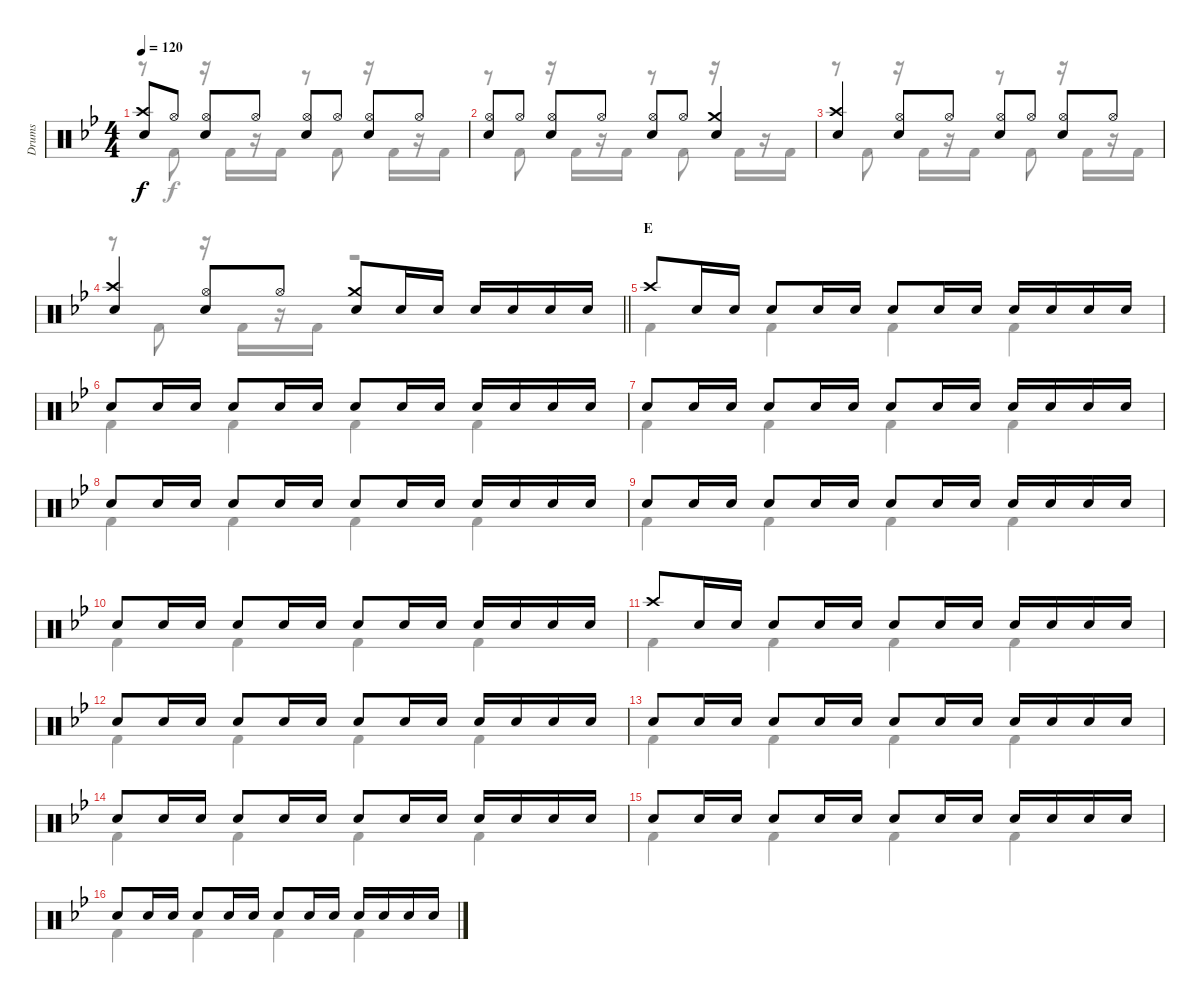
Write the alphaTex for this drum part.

\track ("Drums" "Drums") {instrument percussion}
\staff {score}
\articulation defaults
\voice
\ts (4 4)
\tempo 120
\clef neutral
\ks bb
("Crash high (hit)" "Snare (hit) 2").8{dy f} "Hi-Hat (open)".8 ("Hi-Hat (open)" "Snare (hit) 2").8 "Hi-Hat (open)".8 ("Hi-Hat (open)" "Snare (hit) 2").8 "Hi-Hat (open)".8 ("Hi-Hat (open)" "Snare (hit) 2").8 "Hi-Hat (open)".8 |
("Hi-Hat (open)" "Snare (hit) 2").8 "Hi-Hat (open)".8 ("Hi-Hat (open)" "Snare (hit) 2").8 "Hi-Hat (open)".8 ("Hi-Hat (open)" "Snare (hit) 2").8 "Hi-Hat (open)".8 ("Crash medium (hit)" "Snare (hit) 2").4 |
("Crash high (hit)" "Snare (hit) 2").4 ("Hi-Hat (open)" "Snare (hit) 2").8 "Hi-Hat (open)".8 ("Hi-Hat (open)" "Snare (hit) 2").8 "Hi-Hat (open)".8 ("Hi-Hat (open)" "Snare (hit) 2").8 "Hi-Hat (open)".8 |
\barLineRight lightlight
("Crash high (hit)" "Snare (hit) 2").4 ("Hi-Hat (open)" "Snare (hit) 2").8 "Hi-Hat (open)".8 ("Crash medium (hit)" "Snare (hit) 2").8 "Snare (hit) 2".16 "Snare (hit) 2".16 "Snare (hit) 2".16 "Snare (hit) 2".16 "Snare (hit) 2".16 "Snare (hit) 2".16 |
\section ("" "E")
"Crash high (hit)".8 "Snare (hit) 2".16 "Snare (hit) 2".16 "Snare (hit) 2".8 "Snare (hit) 2".16 "Snare (hit) 2".16 "Snare (hit) 2".8 "Snare (hit) 2".16 "Snare (hit) 2".16 "Snare (hit) 2".16 "Snare (hit) 2".16 "Snare (hit) 2".16 "Snare (hit) 2".16 |
"Snare (hit) 2".8 "Snare (hit) 2".16 "Snare (hit) 2".16 "Snare (hit) 2".8 "Snare (hit) 2".16 "Snare (hit) 2".16 "Snare (hit) 2".8 "Snare (hit) 2".16 "Snare (hit) 2".16 "Snare (hit) 2".16 "Snare (hit) 2".16 "Snare (hit) 2".16 "Snare (hit) 2".16 |
"Snare (hit) 2".8 "Snare (hit) 2".16 "Snare (hit) 2".16 "Snare (hit) 2".8 "Snare (hit) 2".16 "Snare (hit) 2".16 "Snare (hit) 2".8 "Snare (hit) 2".16 "Snare (hit) 2".16 "Snare (hit) 2".16 "Snare (hit) 2".16 "Snare (hit) 2".16 "Snare (hit) 2".16 |
"Snare (hit) 2".8 "Snare (hit) 2".16 "Snare (hit) 2".16 "Snare (hit) 2".8 "Snare (hit) 2".16 "Snare (hit) 2".16 "Snare (hit) 2".8 "Snare (hit) 2".16 "Snare (hit) 2".16 "Snare (hit) 2".16 "Snare (hit) 2".16 "Snare (hit) 2".16 "Snare (hit) 2".16 |
"Snare (hit) 2".8 "Snare (hit) 2".16 "Snare (hit) 2".16 "Snare (hit) 2".8 "Snare (hit) 2".16 "Snare (hit) 2".16 "Snare (hit) 2".8 "Snare (hit) 2".16 "Snare (hit) 2".16 "Snare (hit) 2".16 "Snare (hit) 2".16 "Snare (hit) 2".16 "Snare (hit) 2".16 |
"Snare (hit) 2".8 "Snare (hit) 2".16 "Snare (hit) 2".16 "Snare (hit) 2".8 "Snare (hit) 2".16 "Snare (hit) 2".16 "Snare (hit) 2".8 "Snare (hit) 2".16 "Snare (hit) 2".16 "Snare (hit) 2".16 "Snare (hit) 2".16 "Snare (hit) 2".16 "Snare (hit) 2".16 |
"Crash high (hit)".8 "Snare (hit) 2".16 "Snare (hit) 2".16 "Snare (hit) 2".8 "Snare (hit) 2".16 "Snare (hit) 2".16 "Snare (hit) 2".8 "Snare (hit) 2".16 "Snare (hit) 2".16 "Snare (hit) 2".16 "Snare (hit) 2".16 "Snare (hit) 2".16 "Snare (hit) 2".16 |
"Snare (hit) 2".8 "Snare (hit) 2".16 "Snare (hit) 2".16 "Snare (hit) 2".8 "Snare (hit) 2".16 "Snare (hit) 2".16 "Snare (hit) 2".8 "Snare (hit) 2".16 "Snare (hit) 2".16 "Snare (hit) 2".16 "Snare (hit) 2".16 "Snare (hit) 2".16 "Snare (hit) 2".16 |
"Snare (hit) 2".8 "Snare (hit) 2".16 "Snare (hit) 2".16 "Snare (hit) 2".8 "Snare (hit) 2".16 "Snare (hit) 2".16 "Snare (hit) 2".8 "Snare (hit) 2".16 "Snare (hit) 2".16 "Snare (hit) 2".16 "Snare (hit) 2".16 "Snare (hit) 2".16 "Snare (hit) 2".16 |
"Snare (hit) 2".8 "Snare (hit) 2".16 "Snare (hit) 2".16 "Snare (hit) 2".8 "Snare (hit) 2".16 "Snare (hit) 2".16 "Snare (hit) 2".8 "Snare (hit) 2".16 "Snare (hit) 2".16 "Snare (hit) 2".16 "Snare (hit) 2".16 "Snare (hit) 2".16 "Snare (hit) 2".16 |
"Snare (hit) 2".8 "Snare (hit) 2".16 "Snare (hit) 2".16 "Snare (hit) 2".8 "Snare (hit) 2".16 "Snare (hit) 2".16 "Snare (hit) 2".8 "Snare (hit) 2".16 "Snare (hit) 2".16 "Snare (hit) 2".16 "Snare (hit) 2".16 "Snare (hit) 2".16 "Snare (hit) 2".16 |
"Snare (hit) 2".8 "Snare (hit) 2".16 "Snare (hit) 2".16 "Snare (hit) 2".8 "Snare (hit) 2".16 "Snare (hit) 2".16 "Snare (hit) 2".8 "Snare (hit) 2".16 "Snare (hit) 2".16 "Snare (hit) 2".16 "Snare (hit) 2".16 "Snare (hit) 2".16 "Snare (hit) 2".16
\voice
\clef neutral
\ottava regular
\simile none
\ks bb
r.8{dy f} "Kick (hit) 2".8 r.16 "Kick (hit) 2".16 r.16 "Kick (hit) 2".16 r.8 "Kick (hit) 2".8 r.16 "Kick (hit) 2".16 r.16 "Kick (hit) 2".16 |
r.8 "Kick (hit) 2".8 r.16 "Kick (hit) 2".16 r.16 "Kick (hit) 2".16 r.8 "Kick (hit) 2".8 r.16 "Kick (hit) 2".16 r.16 "Kick (hit) 2".16 |
r.8 "Kick (hit) 2".8 r.16 "Kick (hit) 2".16 r.16 "Kick (hit) 2".16 r.8 "Kick (hit) 2".8 r.16 "Kick (hit) 2".16 r.16 "Kick (hit) 2".16 |
\barLineRight lightlight
r.8 "Kick (hit) 2".8 r.16 "Kick (hit) 2".16 r.16 "Kick (hit) 2".16 r.2 |
"Kick (hit) 2".4 "Kick (hit) 2".4 "Kick (hit) 2".4 "Kick (hit) 2".4 |
"Kick (hit) 2".4 "Kick (hit) 2".4 "Kick (hit) 2".4 "Kick (hit) 2".4 |
"Kick (hit) 2".4 "Kick (hit) 2".4 "Kick (hit) 2".4 "Kick (hit) 2".4 |
"Kick (hit) 2".4 "Kick (hit) 2".4 "Kick (hit) 2".4 "Kick (hit) 2".4 |
"Kick (hit) 2".4 "Kick (hit) 2".4 "Kick (hit) 2".4 "Kick (hit) 2".4 |
"Kick (hit) 2".4 "Kick (hit) 2".4 "Kick (hit) 2".4 "Kick (hit) 2".4 |
"Kick (hit) 2".4 "Kick (hit) 2".4 "Kick (hit) 2".4 "Kick (hit) 2".4 |
"Kick (hit) 2".4 "Kick (hit) 2".4 "Kick (hit) 2".4 "Kick (hit) 2".4 |
"Kick (hit) 2".4 "Kick (hit) 2".4 "Kick (hit) 2".4 "Kick (hit) 2".4 |
"Kick (hit) 2".4 "Kick (hit) 2".4 "Kick (hit) 2".4 "Kick (hit) 2".4 |
"Kick (hit) 2".4 "Kick (hit) 2".4 "Kick (hit) 2".4 "Kick (hit) 2".4 |
"Kick (hit) 2".4 "Kick (hit) 2".4 "Kick (hit) 2".4 "Kick (hit) 2".4
